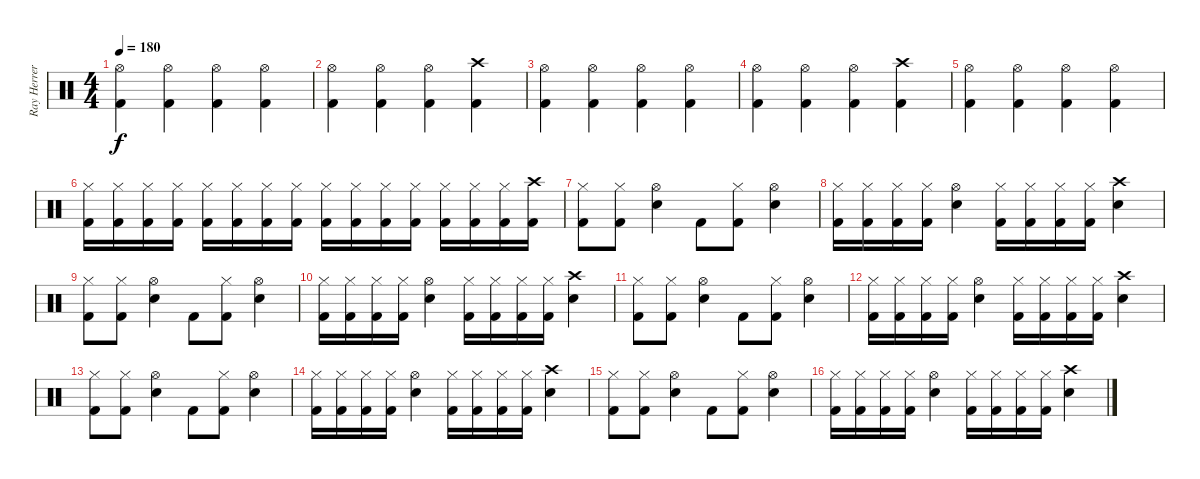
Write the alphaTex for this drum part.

\track ("Ray Herrera" "Ray Herrer") {instrument percussion}
\staff {score}
\articulation defaults
\ts (4 4)
\tempo 180
\clef neutral
\ks c
("Hi-Hat (open)" "Kick (hit) 2").4{dy f} ("Hi-Hat (open)" "Kick (hit) 2").4 ("Hi-Hat (open)" "Kick (hit) 2").4 ("Hi-Hat (open)" "Kick (hit) 2").4 |
("Hi-Hat (open)" "Kick (hit) 2").4 ("Hi-Hat (open)" "Kick (hit) 2").4 ("Hi-Hat (open)" "Kick (hit) 2").4 ("Crash high (hit)" "Kick (hit) 2").4 |
("Hi-Hat (open)" "Kick (hit) 2").4 ("Hi-Hat (open)" "Kick (hit) 2").4 ("Hi-Hat (open)" "Kick (hit) 2").4 ("Hi-Hat (open)" "Kick (hit) 2").4 |
("Hi-Hat (open)" "Kick (hit) 2").4 ("Hi-Hat (open)" "Kick (hit) 2").4 ("Hi-Hat (open)" "Kick (hit) 2").4 ("Crash high (hit)" "Kick (hit) 2").4 |
("Hi-Hat (open)" "Kick (hit) 2").4 ("Hi-Hat (open)" "Kick (hit) 2").4 ("Hi-Hat (open)" "Kick (hit) 2").4 ("Hi-Hat (open)" "Kick (hit) 2").4 |
("Hi-Hat (closed)" "Kick (hit) 2").16 ("Hi-Hat (closed)" "Kick (hit) 2").16 ("Hi-Hat (closed)" "Kick (hit) 2").16 ("Hi-Hat (closed)" "Kick (hit) 2").16 ("Hi-Hat (closed)" "Kick (hit) 2").16 ("Hi-Hat (closed)" "Kick (hit) 2").16 ("Hi-Hat (closed)" "Kick (hit) 2").16 ("Hi-Hat (closed)" "Kick (hit) 2").16 ("Hi-Hat (closed)" "Kick (hit) 2").16 ("Hi-Hat (closed)" "Kick (hit) 2").16 ("Hi-Hat (closed)" "Kick (hit) 2").16 ("Hi-Hat (closed)" "Kick (hit) 2").16 ("Hi-Hat (closed)" "Kick (hit) 2").16 ("Hi-Hat (closed)" "Kick (hit) 2").16 ("Hi-Hat (closed)" "Kick (hit) 2").16 ("Crash high (hit)" "Kick (hit) 2").16 |
("Hi-Hat (closed)" "Kick (hit) 2").8 ("Hi-Hat (closed)" "Kick (hit) 2").8 ("Hi-Hat (open)" "Electric Snare (hit)").4 "Kick (hit) 2".8 ("Hi-Hat (closed)" "Kick (hit) 2").8 ("Hi-Hat (open)" "Electric Snare (hit)").4 |
("Hi-Hat (closed)" "Kick (hit) 2").16 ("Hi-Hat (closed)" "Kick (hit) 2").16 ("Hi-Hat (closed)" "Kick (hit) 2").16 ("Hi-Hat (closed)" "Kick (hit) 2").16 ("Hi-Hat (open)" "Electric Snare (hit)").4 ("Hi-Hat (closed)" "Kick (hit) 2").16 ("Hi-Hat (closed)" "Kick (hit) 2").16 ("Hi-Hat (closed)" "Kick (hit) 2").16 ("Hi-Hat (closed)" "Kick (hit) 2").16 ("Crash high (hit)" "Electric Snare (hit)").4 |
("Hi-Hat (closed)" "Kick (hit) 2").8 ("Hi-Hat (closed)" "Kick (hit) 2").8 ("Hi-Hat (open)" "Electric Snare (hit)").4 "Kick (hit) 2".8 ("Hi-Hat (closed)" "Kick (hit) 2").8 ("Hi-Hat (open)" "Electric Snare (hit)").4 |
("Hi-Hat (closed)" "Kick (hit) 2").16 ("Hi-Hat (closed)" "Kick (hit) 2").16 ("Hi-Hat (closed)" "Kick (hit) 2").16 ("Hi-Hat (closed)" "Kick (hit) 2").16 ("Hi-Hat (open)" "Electric Snare (hit)").4 ("Hi-Hat (closed)" "Kick (hit) 2").16 ("Hi-Hat (closed)" "Kick (hit) 2").16 ("Hi-Hat (closed)" "Kick (hit) 2").16 ("Hi-Hat (closed)" "Kick (hit) 2").16 ("Crash high (hit)" "Electric Snare (hit)").4 |
("Hi-Hat (closed)" "Kick (hit) 2").8 ("Hi-Hat (closed)" "Kick (hit) 2").8 ("Hi-Hat (open)" "Electric Snare (hit)").4 "Kick (hit) 2".8 ("Hi-Hat (closed)" "Kick (hit) 2").8 ("Hi-Hat (open)" "Electric Snare (hit)").4 |
("Hi-Hat (closed)" "Kick (hit) 2").16 ("Hi-Hat (closed)" "Kick (hit) 2").16 ("Hi-Hat (closed)" "Kick (hit) 2").16 ("Hi-Hat (closed)" "Kick (hit) 2").16 ("Hi-Hat (open)" "Electric Snare (hit)").4 ("Hi-Hat (closed)" "Kick (hit) 2").16 ("Hi-Hat (closed)" "Kick (hit) 2").16 ("Hi-Hat (closed)" "Kick (hit) 2").16 ("Hi-Hat (closed)" "Kick (hit) 2").16 ("Crash high (hit)" "Electric Snare (hit)").4 |
("Hi-Hat (closed)" "Kick (hit) 2").8 ("Hi-Hat (closed)" "Kick (hit) 2").8 ("Hi-Hat (open)" "Electric Snare (hit)").4 "Kick (hit) 2".8 ("Hi-Hat (closed)" "Kick (hit) 2").8 ("Hi-Hat (open)" "Electric Snare (hit)").4 |
("Hi-Hat (closed)" "Kick (hit) 2").16 ("Hi-Hat (closed)" "Kick (hit) 2").16 ("Hi-Hat (closed)" "Kick (hit) 2").16 ("Hi-Hat (closed)" "Kick (hit) 2").16 ("Hi-Hat (open)" "Electric Snare (hit)").4 ("Hi-Hat (closed)" "Kick (hit) 2").16 ("Hi-Hat (closed)" "Kick (hit) 2").16 ("Hi-Hat (closed)" "Kick (hit) 2").16 ("Hi-Hat (closed)" "Kick (hit) 2").16 ("Crash high (hit)" "Electric Snare (hit)").4 |
("Hi-Hat (closed)" "Kick (hit) 2").8 ("Hi-Hat (closed)" "Kick (hit) 2").8 ("Hi-Hat (open)" "Electric Snare (hit)").4 "Kick (hit) 2".8 ("Hi-Hat (closed)" "Kick (hit) 2").8 ("Hi-Hat (open)" "Electric Snare (hit)").4 |
("Hi-Hat (closed)" "Kick (hit) 2").16 ("Hi-Hat (closed)" "Kick (hit) 2").16 ("Hi-Hat (closed)" "Kick (hit) 2").16 ("Hi-Hat (closed)" "Kick (hit) 2").16 ("Hi-Hat (open)" "Electric Snare (hit)").4 ("Hi-Hat (closed)" "Kick (hit) 2").16 ("Hi-Hat (closed)" "Kick (hit) 2").16 ("Hi-Hat (closed)" "Kick (hit) 2").16 ("Hi-Hat (closed)" "Kick (hit) 2").16 ("Crash high (hit)" "Electric Snare (hit)").4
